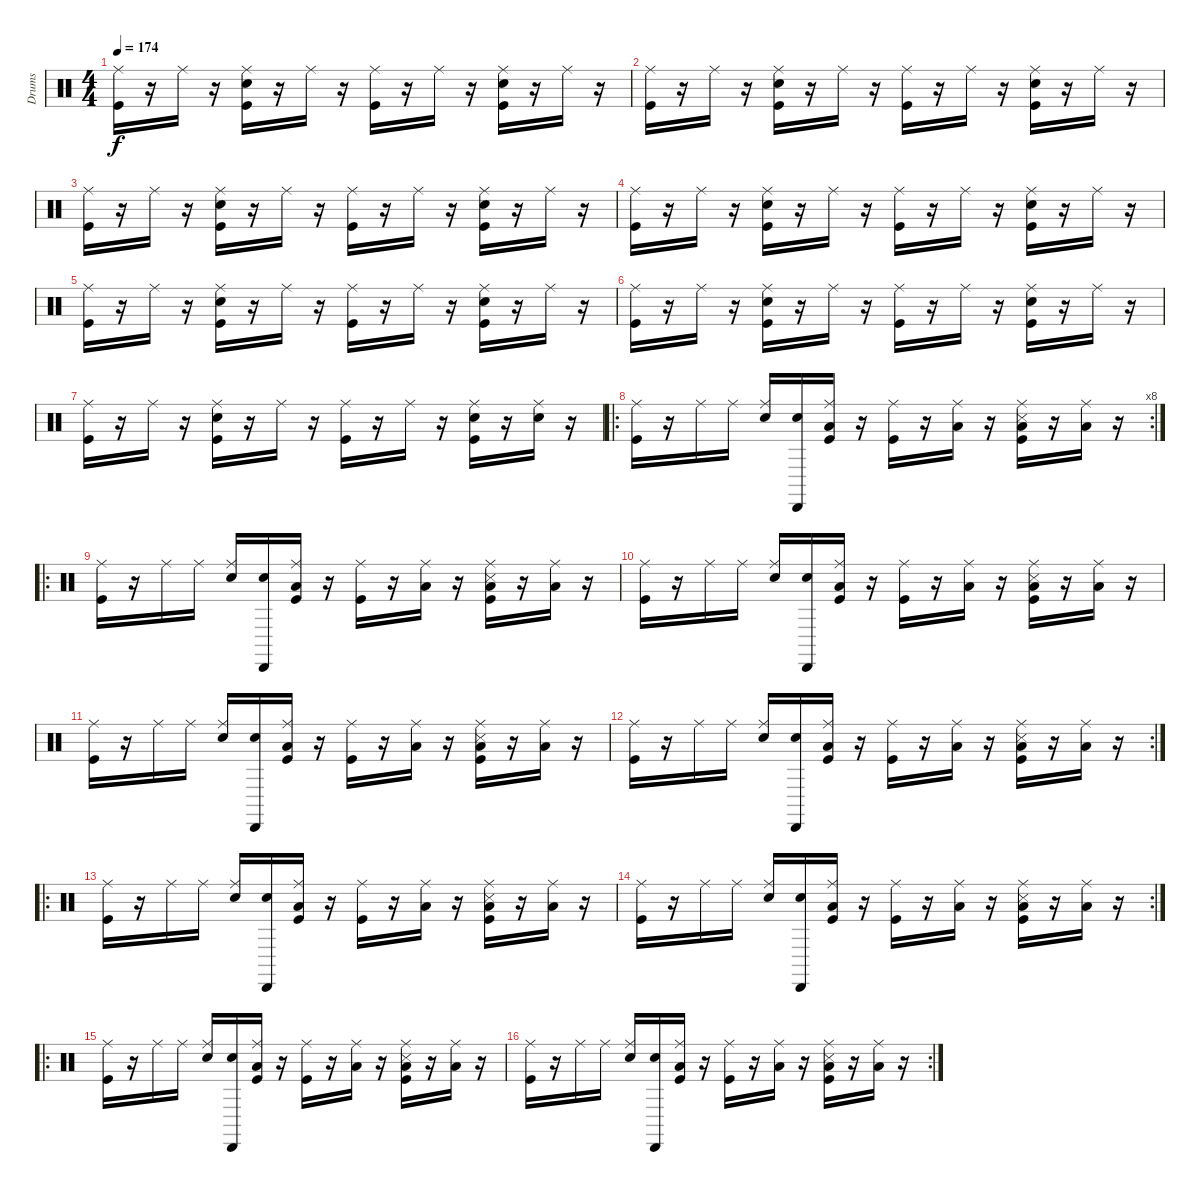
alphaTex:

\track ("Drums" "Drums") {instrument percussion}
\staff {score}
\articulation defaults
\ts (4 4)
\tempo 174
\clef neutral
\ks c
("Kick (hit)" "Ride (middle)").16{dy f} r.16 "Ride (middle)".16 r.16 ("Kick (hit)" "Snare (hit) 2" "Ride (middle)").16 r.16 "Ride (middle)".16 r.16 ("Kick (hit)" "Ride (middle)").16 r.16 "Ride (middle)".16 r.16 ("Kick (hit)" "Snare (hit) 2" "Ride (middle)").16 r.16 "Ride (middle)".16 r.16 |
("Kick (hit)" "Ride (middle)").16 r.16 "Ride (middle)".16 r.16 ("Kick (hit)" "Snare (hit) 2" "Ride (middle)").16 r.16 "Ride (middle)".16 r.16 ("Kick (hit)" "Ride (middle)").16 r.16 "Ride (middle)".16 r.16 ("Kick (hit)" "Snare (hit) 2" "Ride (middle)").16 r.16 "Ride (middle)".16 r.16 |
("Kick (hit)" "Ride (middle)").16 r.16 "Ride (middle)".16 r.16 ("Kick (hit)" "Snare (hit) 2" "Ride (middle)").16 r.16 "Ride (middle)".16 r.16 ("Kick (hit)" "Ride (middle)").16 r.16 "Ride (middle)".16 r.16 ("Kick (hit)" "Snare (hit) 2" "Ride (middle)").16 r.16 "Ride (middle)".16 r.16 |
("Kick (hit)" "Ride (middle)").16 r.16 "Ride (middle)".16 r.16 ("Kick (hit)" "Snare (hit) 2" "Ride (middle)").16 r.16 "Ride (middle)".16 r.16 ("Kick (hit)" "Ride (middle)").16 r.16 "Ride (middle)".16 r.16 ("Kick (hit)" "Snare (hit) 2" "Ride (middle)").16 r.16 "Ride (middle)".16 r.16 |
("Kick (hit)" "Ride (middle)").16 r.16 "Ride (middle)".16 r.16 ("Kick (hit)" "Snare (hit) 2" "Ride (middle)").16 r.16 "Ride (middle)".16 r.16 ("Kick (hit)" "Ride (middle)").16 r.16 "Ride (middle)".16 r.16 ("Kick (hit)" "Snare (hit) 2" "Ride (middle)").16 r.16 "Ride (middle)".16 r.16 |
("Kick (hit)" "Ride (middle)").16 r.16 "Ride (middle)".16 r.16 ("Kick (hit)" "Snare (hit) 2" "Ride (middle)").16 r.16 "Ride (middle)".16 r.16 ("Kick (hit)" "Ride (middle)").16 r.16 "Ride (middle)".16 r.16 ("Kick (hit)" "Snare (hit) 2" "Ride (middle)").16 r.16 "Ride (middle)".16 r.16 |
("Kick (hit)" "Ride (middle)").16 r.16 "Ride (middle)".16 r.16 ("Kick (hit)" "Snare (hit) 2" "Ride (middle)").16 r.16 "Ride (middle)".16 r.16 ("Kick (hit)" "Ride (middle)").16 r.16 "Ride (middle)".16 r.16 ("Kick (hit)" "Snare (hit) 2" "Ride (middle)").16 r.16 ("Snare (hit) 2" "Ride (middle)").16 r.16 |
\ro
\rc 8
("Kick (hit)" "Ride (middle)").16 r.16 "Ride (middle)".16 "Ride (middle)".16 ("Snare (hit)" "Ride (middle)").16 ("Snare (hit)" "Cabasa (hit)").16 ("Low Floor Tom (hit)" "Kick (hit)" "Ride (middle)").16 r.16 ("Kick (hit)" "Ride (middle)").16 r.16 ("Low Floor Tom (hit)" "Ride (middle)").16 r.16 ("Low Floor Tom (hit)" "Kick (hit)" "Snare (side stick) 3" "Ride (middle)").16 r.16 ("Low Floor Tom (hit)" "Ride (middle)").16 r.16 |
\ro
("Kick (hit)" "Ride (middle)").16 r.16 "Ride (middle)".16 "Ride (middle)".16 ("Snare (hit)" "Ride (middle)").16 ("Snare (hit)" "Cabasa (hit)").16 ("Low Floor Tom (hit)" "Kick (hit)" "Ride (middle)").16 r.16 ("Kick (hit)" "Ride (middle)").16 r.16 ("Low Floor Tom (hit)" "Ride (middle)").16 r.16 ("Low Floor Tom (hit)" "Kick (hit)" "Snare (side stick) 3" "Ride (middle)").16 r.16 ("Low Floor Tom (hit)" "Ride (middle)").16 r.16 |
("Kick (hit)" "Ride (middle)").16 r.16 "Ride (middle)".16 "Ride (middle)".16 ("Snare (hit)" "Ride (middle)").16 ("Snare (hit)" "Cabasa (hit)").16 ("Low Floor Tom (hit)" "Kick (hit)" "Ride (middle)").16 r.16 ("Kick (hit)" "Ride (middle)").16 r.16 ("Low Floor Tom (hit)" "Ride (middle)").16 r.16 ("Low Floor Tom (hit)" "Kick (hit)" "Snare (side stick) 3" "Ride (middle)").16 r.16 ("Low Floor Tom (hit)" "Ride (middle)").16 r.16 |
("Kick (hit)" "Ride (middle)").16 r.16 "Ride (middle)".16 "Ride (middle)".16 ("Snare (hit)" "Ride (middle)").16 ("Snare (hit)" "Cabasa (hit)").16 ("Low Floor Tom (hit)" "Kick (hit)" "Ride (middle)").16 r.16 ("Kick (hit)" "Ride (middle)").16 r.16 ("Low Floor Tom (hit)" "Ride (middle)").16 r.16 ("Low Floor Tom (hit)" "Kick (hit)" "Snare (side stick) 3" "Ride (middle)").16 r.16 ("Low Floor Tom (hit)" "Ride (middle)").16 r.16 |
\rc 2
("Kick (hit)" "Ride (middle)").16 r.16 "Ride (middle)".16 "Ride (middle)".16 ("Snare (hit)" "Ride (middle)").16 ("Snare (hit)" "Cabasa (hit)").16 ("Low Floor Tom (hit)" "Kick (hit)" "Ride (middle)").16 r.16 ("Kick (hit)" "Ride (middle)").16 r.16 ("Low Floor Tom (hit)" "Ride (middle)").16 r.16 ("Low Floor Tom (hit)" "Kick (hit)" "Snare (side stick) 3" "Ride (middle)").16 r.16 ("Low Floor Tom (hit)" "Ride (middle)").16 r.16 |
\ro
("Kick (hit)" "Ride (middle)").16 r.16 "Ride (middle)".16 "Ride (middle)".16 ("Snare (hit)" "Ride (middle)").16 ("Snare (hit)" "Cabasa (hit)").16 ("Low Floor Tom (hit)" "Kick (hit)" "Ride (middle)").16 r.16 ("Kick (hit)" "Ride (middle)").16 r.16 ("Low Floor Tom (hit)" "Ride (middle)").16 r.16 ("Low Floor Tom (hit)" "Kick (hit)" "Snare (side stick) 3" "Ride (middle)").16 r.16 ("Low Floor Tom (hit)" "Ride (middle)").16 r.16 |
\rc 2
("Kick (hit)" "Ride (middle)").16 r.16 "Ride (middle)".16 "Ride (middle)".16 ("Snare (hit)" "Ride (middle)").16 ("Snare (hit)" "Cabasa (hit)").16 ("Low Floor Tom (hit)" "Kick (hit)" "Ride (middle)").16 r.16 ("Kick (hit)" "Ride (middle)").16 r.16 ("Low Floor Tom (hit)" "Ride (middle)").16 r.16 ("Low Floor Tom (hit)" "Kick (hit)" "Snare (side stick) 3" "Ride (middle)").16 r.16 ("Low Floor Tom (hit)" "Ride (middle)").16 r.16 |
\ro
("Kick (hit)" "Ride (middle)").16 r.16 "Ride (middle)".16 "Ride (middle)".16 ("Snare (hit)" "Ride (middle)").16 ("Snare (hit)" "Cabasa (hit)").16 ("Low Floor Tom (hit)" "Kick (hit)" "Ride (middle)").16 r.16 ("Kick (hit)" "Ride (middle)").16 r.16 ("Low Floor Tom (hit)" "Ride (middle)").16 r.16 ("Low Floor Tom (hit)" "Kick (hit)" "Snare (side stick) 3" "Ride (middle)").16 r.16 ("Low Floor Tom (hit)" "Ride (middle)").16 r.16 |
\rc 2
("Kick (hit)" "Ride (middle)").16 r.16 "Ride (middle)".16 "Ride (middle)".16 ("Snare (hit)" "Ride (middle)").16 ("Snare (hit)" "Cabasa (hit)").16 ("Low Floor Tom (hit)" "Kick (hit)" "Ride (middle)").16 r.16 ("Kick (hit)" "Ride (middle)").16 r.16 ("Low Floor Tom (hit)" "Ride (middle)").16 r.16 ("Low Floor Tom (hit)" "Kick (hit)" "Snare (side stick) 3" "Ride (middle)").16 r.16 ("Low Floor Tom (hit)" "Ride (middle)").16 r.16
